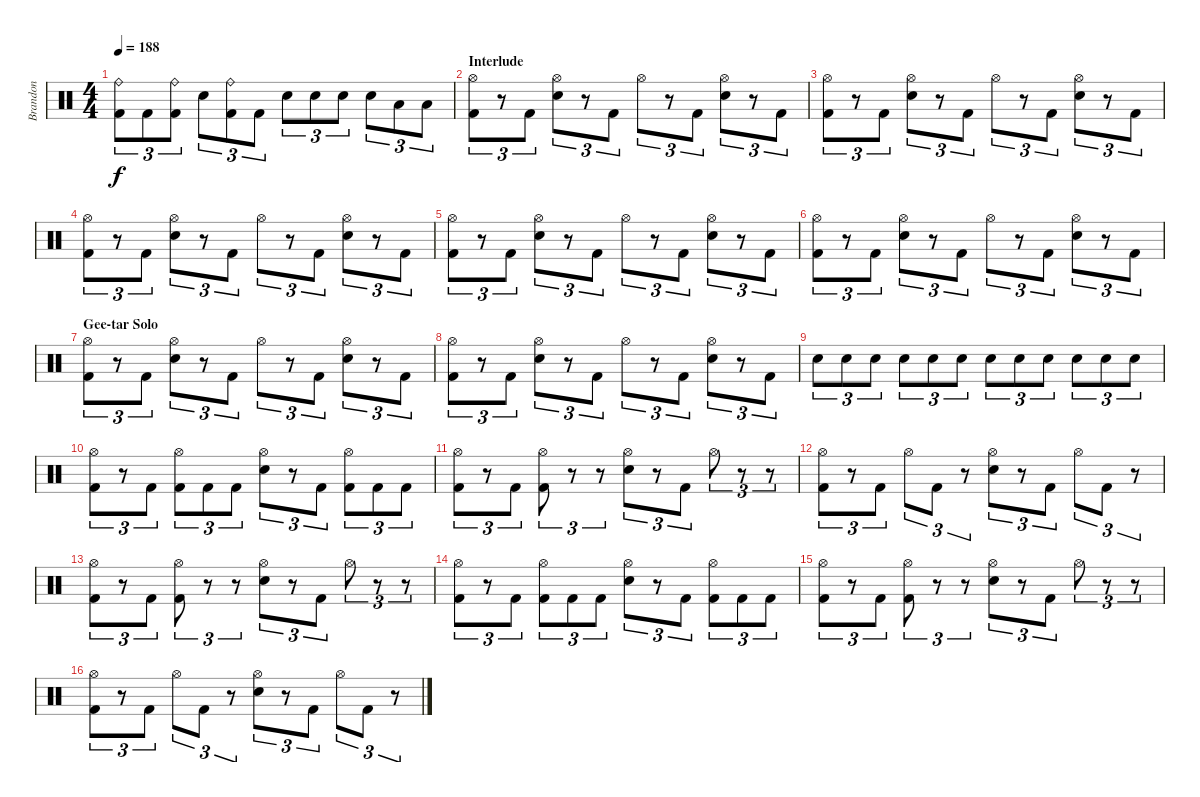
\track ("Brandon" "Brandon") {instrument percussion}
\staff {score}
\articulation defaults
\ts (4 4)
\tempo 188
\clef neutral
\ks c
("Ride (bell)" "Kick (hit) 2").8{tu (3 2) dy f} "Kick (hit) 2".8{tu (3 2)} ("Ride (bell)" "Kick (hit) 2").8{tu (3 2)} "Snare (hit) 2".8{tu (3 2)} ("Ride (bell)" "Kick (hit) 2").8{tu (3 2)} "Kick (hit) 2".8{tu (3 2)} "Snare (hit) 2".8{tu (3 2)} "Snare (hit) 2".8{tu (3 2)} "Snare (hit) 2".8{tu (3 2)} "Snare (hit) 2".8{tu (3 2)} "Low Tom (hit)".8{tu (3 2)} "Low Tom (hit)".8{tu (3 2)} |
\section ("" "Interlude")
("Hi-Hat (open)" "Kick (hit) 2").8{tu (3 2)} r.8{tu (3 2)} "Kick (hit) 2".8{tu (3 2)} ("Hi-Hat (open)" "Snare (hit) 2").8{tu (3 2)} r.8{tu (3 2)} "Kick (hit) 2".8{tu (3 2)} "Hi-Hat (open)".8{tu (3 2)} r.8{tu (3 2)} "Kick (hit) 2".8{tu (3 2)} ("Hi-Hat (open)" "Snare (hit) 2").8{tu (3 2)} r.8{tu (3 2)} "Kick (hit) 2".8{tu (3 2)} |
("Hi-Hat (open)" "Kick (hit) 2").8{tu (3 2)} r.8{tu (3 2)} "Kick (hit) 2".8{tu (3 2)} ("Hi-Hat (open)" "Snare (hit) 2").8{tu (3 2)} r.8{tu (3 2)} "Kick (hit) 2".8{tu (3 2)} "Hi-Hat (open)".8{tu (3 2)} r.8{tu (3 2)} "Kick (hit) 2".8{tu (3 2)} ("Hi-Hat (open)" "Snare (hit) 2").8{tu (3 2)} r.8{tu (3 2)} "Kick (hit) 2".8{tu (3 2)} |
("Hi-Hat (open)" "Kick (hit) 2").8{tu (3 2)} r.8{tu (3 2)} "Kick (hit) 2".8{tu (3 2)} ("Hi-Hat (open)" "Snare (hit) 2").8{tu (3 2)} r.8{tu (3 2)} "Kick (hit) 2".8{tu (3 2)} "Hi-Hat (open)".8{tu (3 2)} r.8{tu (3 2)} "Kick (hit) 2".8{tu (3 2)} ("Hi-Hat (open)" "Snare (hit) 2").8{tu (3 2)} r.8{tu (3 2)} "Kick (hit) 2".8{tu (3 2)} |
("Hi-Hat (open)" "Kick (hit) 2").8{tu (3 2)} r.8{tu (3 2)} "Kick (hit) 2".8{tu (3 2)} ("Hi-Hat (open)" "Snare (hit) 2").8{tu (3 2)} r.8{tu (3 2)} "Kick (hit) 2".8{tu (3 2)} "Hi-Hat (open)".8{tu (3 2)} r.8{tu (3 2)} "Kick (hit) 2".8{tu (3 2)} ("Hi-Hat (open)" "Snare (hit) 2").8{tu (3 2)} r.8{tu (3 2)} "Kick (hit) 2".8{tu (3 2)} |
("Hi-Hat (open)" "Kick (hit) 2").8{tu (3 2)} r.8{tu (3 2)} "Kick (hit) 2".8{tu (3 2)} ("Hi-Hat (open)" "Snare (hit) 2").8{tu (3 2)} r.8{tu (3 2)} "Kick (hit) 2".8{tu (3 2)} "Hi-Hat (open)".8{tu (3 2)} r.8{tu (3 2)} "Kick (hit) 2".8{tu (3 2)} ("Hi-Hat (open)" "Snare (hit) 2").8{tu (3 2)} r.8{tu (3 2)} "Kick (hit) 2".8{tu (3 2)} |
\section ("" "Gee-tar Solo")
("Hi-Hat (open)" "Kick (hit) 2").8{tu (3 2)} r.8{tu (3 2)} "Kick (hit) 2".8{tu (3 2)} ("Hi-Hat (open)" "Snare (hit) 2").8{tu (3 2)} r.8{tu (3 2)} "Kick (hit) 2".8{tu (3 2)} "Hi-Hat (open)".8{tu (3 2)} r.8{tu (3 2)} "Kick (hit) 2".8{tu (3 2)} ("Hi-Hat (open)" "Snare (hit) 2").8{tu (3 2)} r.8{tu (3 2)} "Kick (hit) 2".8{tu (3 2)} |
("Hi-Hat (open)" "Kick (hit) 2").8{tu (3 2)} r.8{tu (3 2)} "Kick (hit) 2".8{tu (3 2)} ("Hi-Hat (open)" "Snare (hit) 2").8{tu (3 2)} r.8{tu (3 2)} "Kick (hit) 2".8{tu (3 2)} "Hi-Hat (open)".8{tu (3 2)} r.8{tu (3 2)} "Kick (hit) 2".8{tu (3 2)} ("Hi-Hat (open)" "Snare (hit) 2").8{tu (3 2)} r.8{tu (3 2)} "Kick (hit) 2".8{tu (3 2)} |
"Snare (hit) 2".8{tu (3 2)} "Snare (hit) 2".8{tu (3 2)} "Snare (hit) 2".8{tu (3 2)} "Snare (hit) 2".8{tu (3 2)} "Snare (hit) 2".8{tu (3 2)} "Snare (hit) 2".8{tu (3 2)} "Snare (hit) 2".8{tu (3 2)} "Snare (hit) 2".8{tu (3 2)} "Snare (hit) 2".8{tu (3 2)} "Snare (hit) 2".8{tu (3 2)} "Snare (hit) 2".8{tu (3 2)} "Snare (hit) 2".8{tu (3 2)} |
("Hi-Hat (open)" "Kick (hit) 2").8{tu (3 2)} r.8{tu (3 2)} "Kick (hit) 2".8{tu (3 2)} ("Hi-Hat (open)" "Kick (hit) 2").8{tu (3 2)} "Kick (hit) 2".8{tu (3 2)} "Kick (hit) 2".8{tu (3 2)} ("Hi-Hat (open)" "Snare (hit) 2").8{tu (3 2)} r.8{tu (3 2)} "Kick (hit) 2".8{tu (3 2)} ("Hi-Hat (open)" "Kick (hit) 2").8{tu (3 2)} "Kick (hit) 2".8{tu (3 2)} "Kick (hit) 2".8{tu (3 2)} |
("Hi-Hat (open)" "Kick (hit) 2").8{tu (3 2)} r.8{tu (3 2)} "Kick (hit) 2".8{tu (3 2)} ("Hi-Hat (open)" "Kick (hit) 2").8{tu (3 2)} r.8{tu (3 2)} r.8{tu (3 2)} ("Hi-Hat (open)" "Snare (hit) 2").8{tu (3 2)} r.8{tu (3 2)} "Kick (hit) 2".8{tu (3 2)} "Hi-Hat (open)".8{tu (3 2)} r.8{tu (3 2)} r.8{tu (3 2)} |
("Hi-Hat (open)" "Kick (hit) 2").8{tu (3 2)} r.8{tu (3 2)} "Kick (hit) 2".8{tu (3 2)} "Hi-Hat (open)".8{tu (3 2)} "Kick (hit) 2".8{tu (3 2)} r.8{tu (3 2)} ("Hi-Hat (open)" "Snare (hit) 2").8{tu (3 2)} r.8{tu (3 2)} "Kick (hit) 2".8{tu (3 2)} "Hi-Hat (open)".8{tu (3 2)} "Kick (hit) 2".8{tu (3 2)} r.8{tu (3 2)} |
("Hi-Hat (open)" "Kick (hit) 2").8{tu (3 2)} r.8{tu (3 2)} "Kick (hit) 2".8{tu (3 2)} ("Hi-Hat (open)" "Kick (hit) 2").8{tu (3 2)} r.8{tu (3 2)} r.8{tu (3 2)} ("Hi-Hat (open)" "Snare (hit) 2").8{tu (3 2)} r.8{tu (3 2)} "Kick (hit) 2".8{tu (3 2)} "Hi-Hat (open)".8{tu (3 2)} r.8{tu (3 2)} r.8{tu (3 2)} |
("Hi-Hat (open)" "Kick (hit) 2").8{tu (3 2)} r.8{tu (3 2)} "Kick (hit) 2".8{tu (3 2)} ("Hi-Hat (open)" "Kick (hit) 2").8{tu (3 2)} "Kick (hit) 2".8{tu (3 2)} "Kick (hit) 2".8{tu (3 2)} ("Hi-Hat (open)" "Snare (hit) 2").8{tu (3 2)} r.8{tu (3 2)} "Kick (hit) 2".8{tu (3 2)} ("Hi-Hat (open)" "Kick (hit) 2").8{tu (3 2)} "Kick (hit) 2".8{tu (3 2)} "Kick (hit) 2".8{tu (3 2)} |
("Hi-Hat (open)" "Kick (hit) 2").8{tu (3 2)} r.8{tu (3 2)} "Kick (hit) 2".8{tu (3 2)} ("Hi-Hat (open)" "Kick (hit) 2").8{tu (3 2)} r.8{tu (3 2)} r.8{tu (3 2)} ("Hi-Hat (open)" "Snare (hit) 2").8{tu (3 2)} r.8{tu (3 2)} "Kick (hit) 2".8{tu (3 2)} "Hi-Hat (open)".8{tu (3 2)} r.8{tu (3 2)} r.8{tu (3 2)} |
("Hi-Hat (open)" "Kick (hit) 2").8{tu (3 2)} r.8{tu (3 2)} "Kick (hit) 2".8{tu (3 2)} "Hi-Hat (open)".8{tu (3 2)} "Kick (hit) 2".8{tu (3 2)} r.8{tu (3 2)} ("Hi-Hat (open)" "Snare (hit) 2").8{tu (3 2)} r.8{tu (3 2)} "Kick (hit) 2".8{tu (3 2)} "Hi-Hat (open)".8{tu (3 2)} "Kick (hit) 2".8{tu (3 2)} r.8{tu (3 2)}
